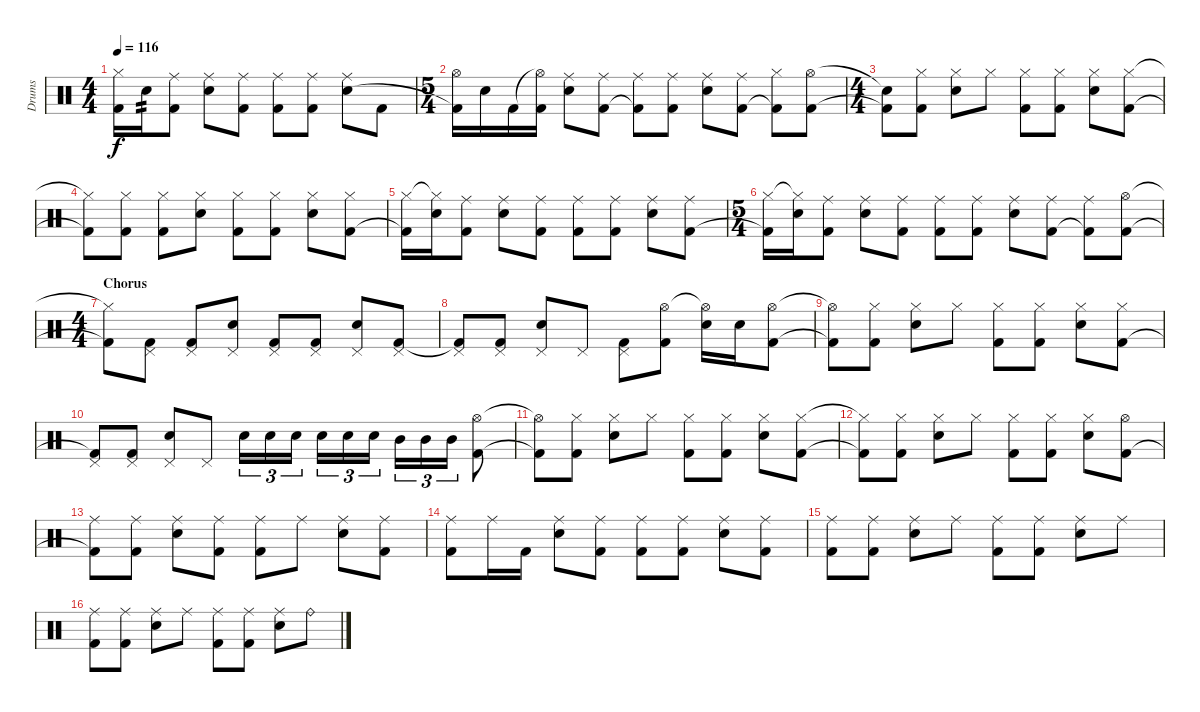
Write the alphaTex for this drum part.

\track ("Drums" "Drums") {instrument percussion}
\staff {score}
\articulation defaults
\ts (4 4)
\tempo 116
\clef neutral
\ks c
("Hi-Hat (closed)" "Kick (hit) 2").16{dy f} "Snare (hit) 2".16{tp 2} ("Ride (middle)" "Kick (hit) 2").8 ("Ride (middle)" "Snare (hit) 2").8 ("Ride (middle)" "Kick (hit) 2").8 ("Ride (middle)" "Kick (hit) 2").8 ("Ride (middle)" "Kick (hit) 2").8 ("Ride (middle)" "Snare (hit) 2").8 "Kick (hit) 2".8 |
\ts (5 4)
("Hi-Hat (open)" "Kick (hit) 2"{t}).16 "Snare (hit) 2".16 "Kick (hit) 2".16 ("Hi-Hat (open)"{t} "Kick (hit) 2").16 ("Ride (middle)" "Snare (hit) 2").8 ("Ride (middle)" "Kick (hit) 2").8 ("Ride (middle)" "Kick (hit) 2"{t}).8 ("Ride (middle)" "Kick (hit) 2").8 ("Ride (middle)" "Snare (hit) 2").8 ("Ride (middle)" "Kick (hit) 2").8 ("Hi-Hat (closed)" "Kick (hit) 2"{t}).8 ("Hi-Hat (open)" "Kick (hit) 2").8 |
\ts (4 4)
("Snare (hit) 2"{t} "Kick (hit) 2"{t}).8 ("Hi-Hat (closed)" "Kick (hit) 2").8 ("Hi-Hat (closed)" "Snare (hit) 2").8 "Hi-Hat (closed)".8 ("Hi-Hat (closed)" "Kick (hit) 2").8 ("Hi-Hat (closed)" "Kick (hit) 2").8 ("Hi-Hat (closed)" "Snare (hit) 2").8 ("Hi-Hat (closed)" "Kick (hit) 2").8 |
("Hi-Hat (closed)"{t} "Kick (hit) 2"{t}).8 ("Hi-Hat (closed)" "Kick (hit) 2").8 ("Hi-Hat (closed)" "Kick (hit) 2").8 ("Hi-Hat (closed)" "Snare (hit) 2").8 ("Hi-Hat (closed)" "Kick (hit) 2").8 ("Hi-Hat (closed)" "Kick (hit) 2").8 ("Hi-Hat (closed)" "Snare (hit) 2").8 ("Hi-Hat (closed)" "Kick (hit) 2").8 |
("Hi-Hat (closed)" "Kick (hit) 2"{t}).16 ("Hi-Hat (closed)"{t} "Snare (hit) 2").16 ("Ride (middle)" "Kick (hit) 2").8 ("Ride (middle)" "Snare (hit) 2").8 ("Ride (middle)" "Kick (hit) 2").8 ("Ride (middle)" "Kick (hit) 2").8 ("Ride (middle)" "Kick (hit) 2").8 ("Ride (middle)" "Snare (hit) 2").8 ("Ride (middle)" "Kick (hit) 2").8 |
\ts (5 4)
("Hi-Hat (closed)" "Kick (hit) 2"{t}).16 ("Hi-Hat (closed)"{t} "Snare (hit) 2").16 ("Ride (middle)" "Kick (hit) 2").8 ("Ride (middle)" "Snare (hit) 2").8 ("Ride (middle)" "Kick (hit) 2").8 ("Ride (middle)" "Kick (hit) 2").8 ("Ride (middle)" "Kick (hit) 2").8 ("Ride (middle)" "Snare (hit) 2").8 ("Ride (middle)" "Kick (hit) 2").8 ("Ride (middle)" "Kick (hit) 2"{t}).8 ("Hi-Hat (open)" "Kick (hit) 2").8 |
\ts (4 4)
\section ("" "Chorus")
("Hi-Hat (closed)"{t} "Kick (hit) 2"{t}).8 ("Pedal Hi-Hat (hit)" "Kick (hit) 2").8 ("Pedal Hi-Hat (hit)" "Kick (hit) 2").8 ("Pedal Hi-Hat (hit)" "Snare (hit) 2").8 ("Pedal Hi-Hat (hit)" "Kick (hit) 2").8 ("Pedal Hi-Hat (hit)" "Kick (hit) 2").8 ("Pedal Hi-Hat (hit)" "Snare (hit) 2").8 ("Pedal Hi-Hat (hit)" "Kick (hit) 2").8 |
("Pedal Hi-Hat (hit)" "Kick (hit) 2"{t}).8 ("Pedal Hi-Hat (hit)" "Kick (hit) 2").8 ("Pedal Hi-Hat (hit)" "Snare (hit) 2").8 "Pedal Hi-Hat (hit)".8 ("Pedal Hi-Hat (hit)" "Kick (hit) 2").8 ("Hi-Hat (open)" "Kick (hit) 2").8 ("Hi-Hat (open)"{t} "Snare (hit) 2").16 "Snare (hit) 2".16 ("Hi-Hat (open)" "Kick (hit) 2").8 |
("Hi-Hat (open)"{t} "Kick (hit) 2"{t}).8 ("Hi-Hat (closed)" "Kick (hit) 2").8 ("Hi-Hat (closed)" "Snare (hit) 2").8 "Hi-Hat (closed)".8 ("Hi-Hat (closed)" "Kick (hit) 2").8 ("Hi-Hat (closed)" "Kick (hit) 2").8 ("Hi-Hat (closed)" "Snare (hit) 2").8 ("Hi-Hat (closed)" "Kick (hit) 2").8 |
("Pedal Hi-Hat (hit)" "Kick (hit) 2"{t}).8 ("Pedal Hi-Hat (hit)" "Kick (hit) 2").8 ("Pedal Hi-Hat (hit)" "Snare (hit) 2").8 "Pedal Hi-Hat (hit)".8 "Snare (hit) 2".16{tu (3 2)} "Snare (hit) 2".16{tu (3 2)} "Snare (hit) 2".16{tu (3 2)} "Snare (hit) 2".16{tu (3 2)} "Snare (hit) 2".16{tu (3 2)} "Snare (hit) 2".16{tu (3 2)} "Mid Tom (hit)".16{tu (3 2)} "Mid Tom (hit)".16{tu (3 2)} "Mid Tom (hit)".16{tu (3 2)} ("Hi-Hat (open)" "Kick (hit) 2").8 |
("Hi-Hat (open)"{t} "Kick (hit) 2"{t}).8 ("Hi-Hat (closed)" "Kick (hit) 2").8 ("Hi-Hat (closed)" "Snare (hit) 2").8 "Hi-Hat (closed)".8 ("Hi-Hat (closed)" "Kick (hit) 2").8 ("Hi-Hat (closed)" "Kick (hit) 2").8 ("Hi-Hat (closed)" "Snare (hit) 2").8 ("Hi-Hat (closed)" "Kick (hit) 2").8 |
("Hi-Hat (closed)"{t} "Kick (hit) 2"{t}).8 ("Hi-Hat (closed)" "Kick (hit) 2").8 ("Hi-Hat (closed)" "Snare (hit) 2").8 "Hi-Hat (closed)".8 ("Hi-Hat (closed)" "Kick (hit) 2").8 ("Hi-Hat (closed)" "Kick (hit) 2").8 ("Hi-Hat (closed)" "Snare (hit) 2").8 ("Hi-Hat (open)" "Kick (hit) 2").8 |
("Ride (middle)" "Kick (hit) 2"{t}).8 ("Ride (middle)" "Kick (hit) 2").8 ("Ride (middle)" "Snare (hit) 2").8 ("Ride (middle)" "Kick (hit) 2").8 ("Ride (middle)" "Kick (hit) 2").8 "Ride (middle)".8 ("Ride (middle)" "Snare (hit) 2").8 ("Ride (middle)" "Kick (hit) 2").8 |
("Ride (middle)" "Kick (hit) 2").8 "Ride (middle)".16 "Kick (hit) 2".16 ("Ride (middle)" "Snare (hit) 2").8 ("Ride (middle)" "Kick (hit) 2").8 ("Ride (middle)" "Kick (hit) 2").8 ("Ride (middle)" "Kick (hit) 2").8 ("Ride (middle)" "Snare (hit) 2").8 ("Ride (middle)" "Kick (hit) 2").8 |
("Ride (middle)" "Kick (hit) 2").8 ("Ride (middle)" "Kick (hit) 2").8 ("Ride (middle)" "Snare (hit) 2").8 "Ride (middle)".8 ("Ride (middle)" "Kick (hit) 2").8 ("Ride (middle)" "Kick (hit) 2").8 ("Ride (middle)" "Snare (hit) 2").8 "Ride (middle)".8 |
("Ride (middle)" "Kick (hit) 2").8 ("Ride (middle)" "Kick (hit) 2").8 ("Ride (middle)" "Snare (hit) 2").8 "Ride (middle)".8 ("Ride (middle)" "Kick (hit) 2").8 ("Ride (middle)" "Kick (hit) 2").8 ("Ride (middle)" "Snare (hit) 2").8 "Ride (bell)".8
